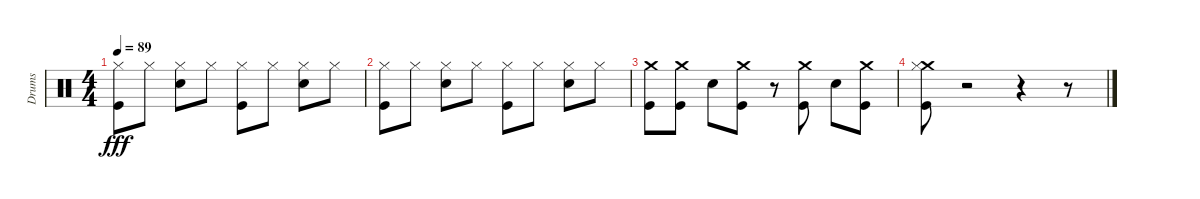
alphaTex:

\track ("Drums" "Drums") {instrument percussion}
\staff {score}
\articulation defaults
\ts (4 4)
\tempo 89
\clef neutral
\ks c
("Kick (hit)" "Hi-Hat (closed)").8{dy fff} "Hi-Hat (closed)".8 ("Snare (hit) 2" "Hi-Hat (closed)").8 "Hi-Hat (closed)".8 ("Kick (hit)" "Hi-Hat (closed)").8 "Hi-Hat (closed)".8 ("Snare (hit) 2" "Hi-Hat (closed)").8 "Hi-Hat (closed)".8 |
("Kick (hit)" "Hi-Hat (closed)").8 "Hi-Hat (closed)".8 ("Snare (hit) 2" "Hi-Hat (closed)").8 "Hi-Hat (closed)".8 ("Kick (hit)" "Hi-Hat (closed)").8 "Hi-Hat (closed)".8 ("Snare (hit) 2" "Hi-Hat (closed)").8 "Hi-Hat (closed)".8 |
("Crash medium (hit)" "Kick (hit)").8 ("Crash medium (hit)" "Kick (hit)").8 "Snare (hit) 2".8 ("Crash medium (hit)" "Kick (hit)").8 r.8 ("Crash medium (hit)" "Kick (hit)").8 "Snare (hit) 2".8 ("Crash medium (hit)" "Kick (hit)").8 |
("Crash medium (hit)" "Hi-Hat (closed)" "Kick (hit)").8 r.2 r.4 r.8
